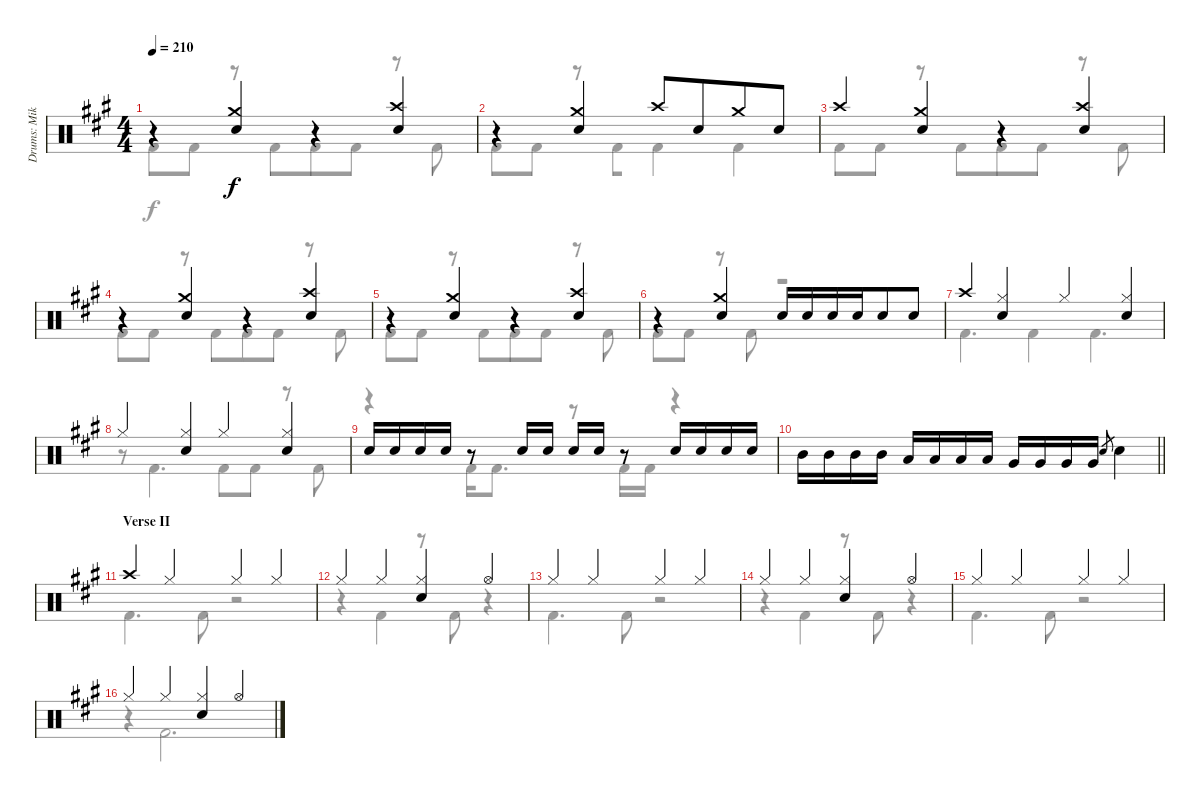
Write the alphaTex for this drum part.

\track ("Drums: Mikkey" "Drums: Mik") {instrument percussion}
\staff {score}
\articulation defaults
\voice
\ts (4 4)
\tempo 210
\clef neutral
\ks a
r.4{dy f} ("Crash medium (hit)" "Snare (hit) 2").4 r.4 ("Crash high (hit)" "Snare (hit) 2").4 |
r.4 ("Crash medium (hit)" "Snare (hit) 2").4 "Crash high (hit)".8 "Snare (hit) 2".8{beam merge} "Crash medium (hit)".8 "Snare (hit) 2".8 |
"Crash high (hit)".4 ("Crash medium (hit)" "Snare (hit) 2").4 r.4 ("Crash high (hit)" "Snare (hit) 2").4 |
r.4 ("Crash medium (hit)" "Snare (hit) 2").4 r.4 ("Crash high (hit)" "Snare (hit) 2").4 |
r.4 ("Crash medium (hit)" "Snare (hit) 2").4 r.4 ("Crash high (hit)" "Snare (hit) 2").4 |
r.4 ("Crash medium (hit)" "Snare (hit) 2").4 "Snare (hit) 2".16{beam merge} "Snare (hit) 2".16 "Snare (hit) 2".16 "Snare (hit) 2".16{beam merge} "Snare (hit) 2".8 "Snare (hit) 2".8 |
"Crash high (hit)".4 ("Hi-Hat (closed)" "Snare (hit) 2").4 "Hi-Hat (closed)".4 ("Hi-Hat (closed)" "Snare (hit) 2").4 |
"Hi-Hat (closed)".4 ("Hi-Hat (closed)" "Snare (hit) 2").4 "Hi-Hat (closed)".4 ("Hi-Hat (closed)" "Snare (hit) 2").4 |
"Snare (hit) 2".16 "Snare (hit) 2".16 "Snare (hit) 2".16 "Snare (hit) 2".16 r.8 "Snare (hit) 2".16 "Snare (hit) 2".16 "Snare (hit) 2".16 "Snare (hit) 2".16 r.8 "Snare (hit) 2".16 "Snare (hit) 2".16 "Snare (hit) 2".16 "Snare (hit) 2".16 |
\barLineRight lightlight "Mid Tom (hit)".16 "Mid Tom (hit)".16 "Mid Tom (hit)".16 "Mid Tom (hit)".16 "Low Tom (hit)".16 "Low Tom (hit)".16 "Low Tom (hit)".16 "Low Tom (hit)".16 "Very Low Tom (hit)".16 "Very Low Tom (hit)".16 "Very Low Tom (hit)".16 "Very Low Tom (hit)".16 "Electric Snare (hit)".8{gr} "Snare (hit) 2".4
|
\section ("" "Verse II")
"Crash high (hit)".4 "Hi-Hat (closed)".4 "Hi-Hat (closed)".4 "Hi-Hat (closed)".4 |
"Hi-Hat (closed)".4 "Hi-Hat (closed)".4 ("Hi-Hat (closed)" "Snare (hit) 2").4 "Hi-Hat (open)".4 |
"Hi-Hat (closed)".4 "Hi-Hat (closed)".4 "Hi-Hat (closed)".4 "Hi-Hat (closed)".4 |
"Hi-Hat (closed)".4 "Hi-Hat (closed)".4 ("Hi-Hat (closed)" "Snare (hit) 2").4 "Hi-Hat (open)".4 |
"Hi-Hat (closed)".4 "Hi-Hat (closed)".4 "Hi-Hat (closed)".4 "Hi-Hat (closed)".4 |
"Hi-Hat (closed)".4 "Hi-Hat (closed)".4 ("Hi-Hat (closed)" "Snare (hit) 2").4 "Hi-Hat (open)".4
\voice
\clef neutral
\ottava regular
\simile none
\ks a "Kick (hit) 2".8{dy f} "Kick (hit) 2".8
r.8 "Kick (hit) 2".8{beam merge} "Kick (hit) 2".8 "Kick (hit) 2".8 r.8 "Kick (hit) 2".8 |
"Kick (hit) 2".8 "Kick (hit) 2".8 r.8 "Kick (hit) 2".8{beam merge} "Kick (hit) 2".4 "Kick (hit) 2".4 |
"Kick (hit) 2".8 "Kick (hit) 2".8 r.8 "Kick (hit) 2".8{beam merge} "Kick (hit) 2".8 "Kick (hit) 2".8 r.8 "Kick (hit) 2".8 |
"Kick (hit) 2".8 "Kick (hit) 2".8 r.8 "Kick (hit) 2".8{beam merge} "Kick (hit) 2".8 "Kick (hit) 2".8 r.8 "Kick (hit) 2".8 |
"Kick (hit) 2".8 "Kick (hit) 2".8 r.8 "Kick (hit) 2".8{beam merge} "Kick (hit) 2".8 "Kick (hit) 2".8 r.8 "Kick (hit) 2".8 |
"Kick (hit) 2".8 "Kick (hit) 2".8 r.8 "Kick (hit) 2".8{beam merge} r.2 |
"Kick (hit) 2".4{d} "Kick (hit) 2".4 "Kick (hit) 2".4{d} |
r.8 "Kick (hit) 2".4{d} "Kick (hit) 2".8 "Kick (hit) 2".8 r.8 "Kick (hit) 2".8 |
r.4 "Kick (hit) 2".16 "Kick (hit) 2".8{d} r.8 "Kick (hit) 2".16 "Kick (hit) 2".16 r.4 |
\barLineRight lightlight
|
"Kick (hit) 2".4{d} "Kick (hit) 2".8 r.2 |
r.4 "Kick (hit) 2".4 r.8 "Kick (hit) 2".8 r.4 |
"Kick (hit) 2".4{d} "Kick (hit) 2".8 r.2 |
r.4 "Kick (hit) 2".4 r.8 "Kick (hit) 2".8 r.4 |
"Kick (hit) 2".4{d} "Kick (hit) 2".8 r.2 |
r.4 "Kick (hit) 2".2{d}
